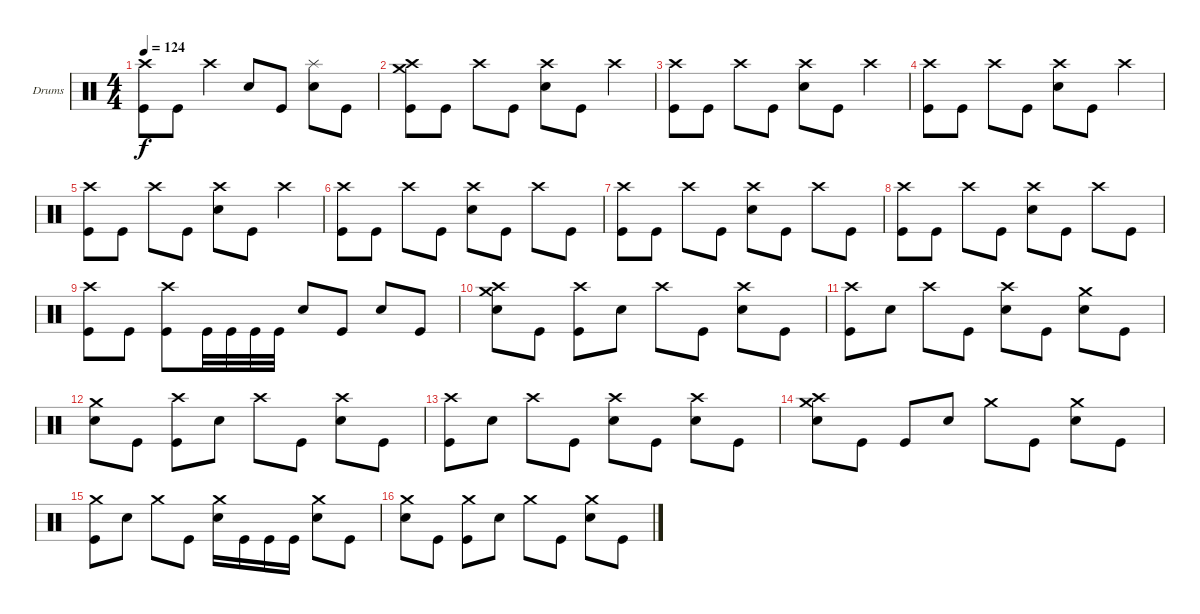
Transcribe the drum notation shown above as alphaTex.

\defaultSystemsLayout 4
\bracketExtendMode groupsimilarinstruments
\firstSystemTrackNameOrientation horizontal
\otherSystemsTrackNameOrientation horizontal
\track ("Drumkit" "Drums") {instrument percussion}
\staff {score}
\articulation defaults
\ts (4 4)
\tempo 124
\clef neutral
\ks c
("Crash high (hit)" "Kick (hit)").8{dy f} "Kick (hit)".8 "Crash high (hit)".4 "Snare (hit) 2".8 "Kick (hit)".8 ("Splash (hit)" "Snare (hit) 2").8 "Kick (hit)".8 |
("Crash high (hit)" "Crash medium (hit)" "Kick (hit)").8 "Kick (hit)".8 "Crash high (hit)".8 "Kick (hit)".8 ("Crash high (hit)" "Snare (hit) 2").8 "Kick (hit)".8 "Crash high (hit)".4 |
("Crash high (hit)" "Kick (hit)").8 "Kick (hit)".8 "Crash high (hit)".8 "Kick (hit)".8 ("Crash high (hit)" "Snare (hit) 2").8 "Kick (hit)".8 "Crash high (hit)".4 |
("Crash high (hit)" "Kick (hit)").8 "Kick (hit)".8 "Crash high (hit)".8 "Kick (hit)".8 ("Crash high (hit)" "Snare (hit) 2").8 "Kick (hit)".8 "Crash high (hit)".4 |
("Crash high (hit)" "Kick (hit)").8 "Kick (hit)".8 "Crash high (hit)".8 "Kick (hit)".8 ("Crash high (hit)" "Snare (hit) 2").8 "Kick (hit)".8 "Crash high (hit)".4 |
("Crash high (hit)" "Kick (hit)").8 "Kick (hit)".8 "Crash high (hit)".8 "Kick (hit)".8 ("Crash high (hit)" "Snare (hit) 2").8 "Kick (hit)".8 "Crash high (hit)".8 "Kick (hit)".8 |
("Crash high (hit)" "Kick (hit)").8 "Kick (hit)".8 "Crash high (hit)".8 "Kick (hit)".8 ("Crash high (hit)" "Snare (hit) 2").8 "Kick (hit)".8 "Crash high (hit)".8 "Kick (hit)".8 |
("Crash high (hit)" "Kick (hit)").8 "Kick (hit)".8 "Crash high (hit)".8 "Kick (hit)".8 ("Crash high (hit)" "Snare (hit) 2").8 "Kick (hit)".8 "Crash high (hit)".8 "Kick (hit)".8 |
("Crash high (hit)" "Kick (hit)").8 "Kick (hit)".8 ("Crash high (hit)" "Kick (hit)").8 "Kick (hit)".32 "Kick (hit)".32 "Kick (hit)".32 "Kick (hit)".32 "Snare (hit) 2".8 "Kick (hit)".8 "Snare (hit) 2".8 "Kick (hit)".8 |
("Crash high (hit)" "Crash medium (hit)" "Snare (hit) 2").8 "Kick (hit)".8 ("Crash high (hit)" "Kick (hit)").8 "Snare (hit) 2".8 "Crash high (hit)".8 "Kick (hit)".8 ("Crash high (hit)" "Snare (hit) 2").8 "Kick (hit)".8 |
("Crash high (hit)" "Kick (hit)").8 "Snare (hit) 2".8 "Crash high (hit)".8 "Kick (hit)".8 ("Crash high (hit)" "Snare (hit) 2").8 "Kick (hit)".8 ("Crash medium (hit)" "Snare (hit) 2").8 "Kick (hit)".8 |
("Crash medium (hit)" "Snare (hit) 2").8 "Kick (hit)".8 ("Crash high (hit)" "Kick (hit)").8 "Snare (hit) 2".8 "Crash high (hit)".8 "Kick (hit)".8 ("Crash high (hit)" "Snare (hit) 2").8 "Kick (hit)".8 |
("Crash high (hit)" "Kick (hit)").8 "Snare (hit) 2".8 "Crash high (hit)".8 "Kick (hit)".8 ("Crash high (hit)" "Snare (hit) 2").8 "Kick (hit)".8 ("Crash high (hit)" "Snare (hit) 2").8 "Kick (hit)".8 |
("Crash high (hit)" "Crash medium (hit)" "Snare (hit) 2").8 "Kick (hit)".8 "Kick (hit)".8 "Snare (hit) 2".8 "Crash medium (hit)".8 "Kick (hit)".8 ("Crash medium (hit)" "Snare (hit) 2").8 "Kick (hit)".8 |
("Crash medium (hit)" "Kick (hit)").8 "Snare (hit) 2".8 "Crash medium (hit)".8 "Kick (hit)".8 ("Crash medium (hit)" "Snare (hit) 2").16 "Kick (hit)".16 "Kick (hit)".16 "Kick (hit)".16 ("Crash medium (hit)" "Snare (hit) 2").8 "Kick (hit)".8 |
("Crash medium (hit)" "Snare (hit) 2").8 "Kick (hit)".8 ("Crash medium (hit)" "Kick (hit)").8 "Snare (hit) 2".8 "Crash medium (hit)".8 "Kick (hit)".8 ("Crash medium (hit)" "Snare (hit) 2").8 "Kick (hit)".8
